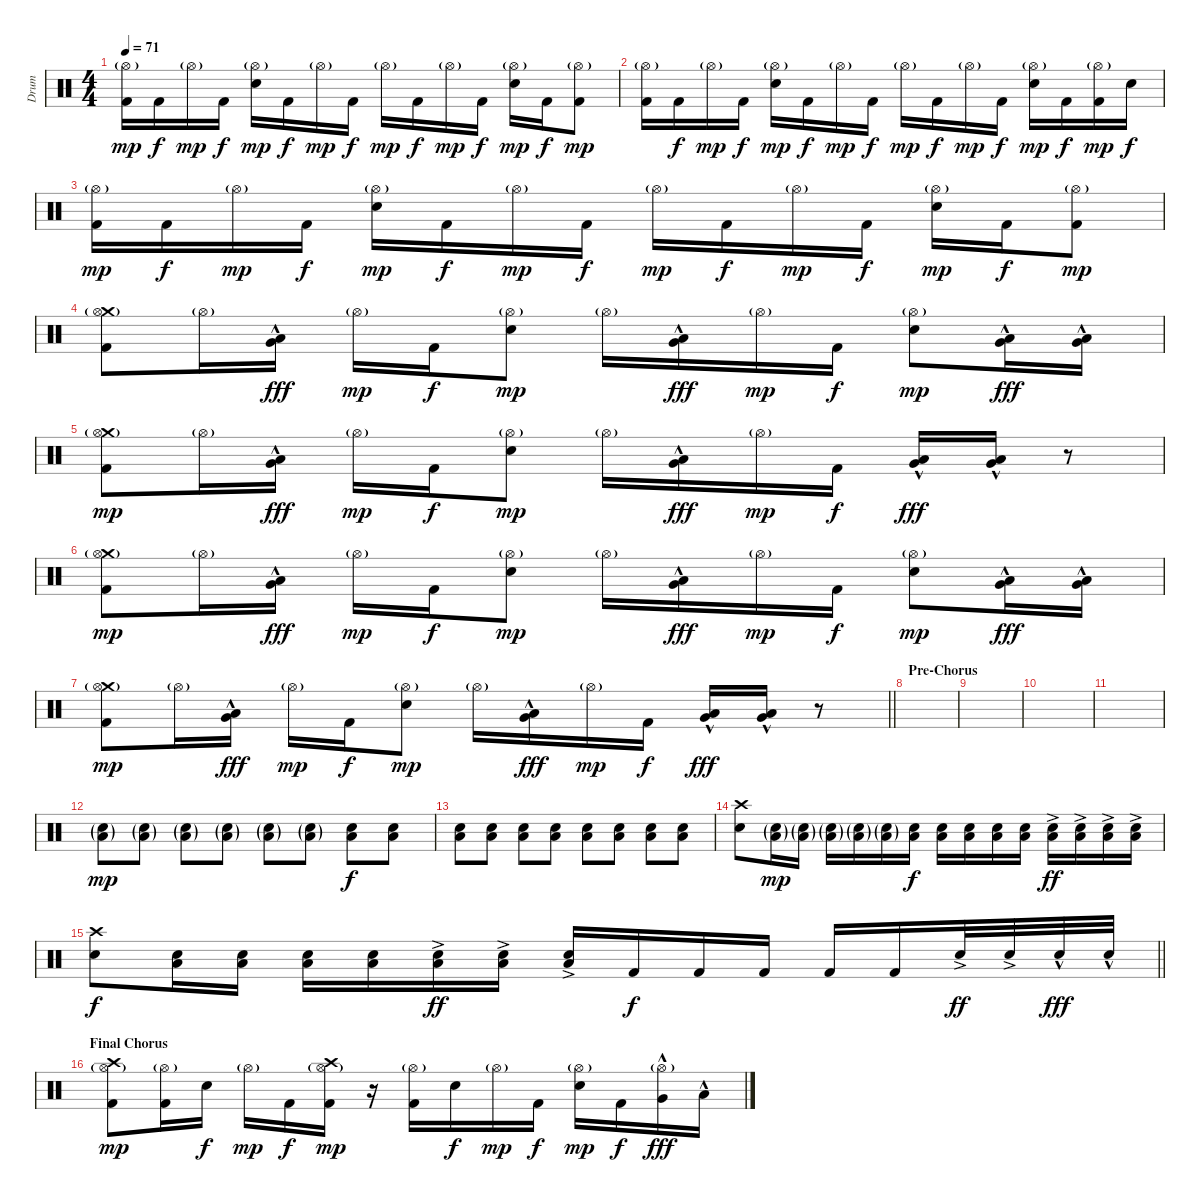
\track ("Drum" "Drum") {instrument percussion}
\staff {score}
\articulation defaults
\ts (4 4)
\tempo 71
\clef neutral
\ks c
("Hi-Hat (open)"{g} "Kick (hit) 2").16{dy mp} "Kick (hit) 2".16{dy f} "Hi-Hat (open)"{g}.16{dy mp} "Kick (hit) 2".16{dy f} ("Hi-Hat (open)"{g} "Electric Snare (hit)").16{dy mp} "Kick (hit) 2".16{dy f} "Hi-Hat (open)"{g}.16{dy mp} "Kick (hit) 2".16{dy f} "Hi-Hat (open)"{g}.16{dy mp} "Kick (hit) 2".16{dy f} "Hi-Hat (open)"{g}.16{dy mp} "Kick (hit) 2".16{dy f} ("Hi-Hat (open)"{g} "Electric Snare (hit)").16{dy mp} "Kick (hit) 2".16{dy f} ("Hi-Hat (open)"{g} "Kick (hit) 2").8{dy mp} |
("Hi-Hat (open)"{g} "Kick (hit) 2").16 "Kick (hit) 2".16{dy f} "Hi-Hat (open)"{g}.16{dy mp} "Kick (hit) 2".16{dy f} ("Hi-Hat (open)"{g} "Electric Snare (hit)").16{dy mp} "Kick (hit) 2".16{dy f} "Hi-Hat (open)"{g}.16{dy mp} "Kick (hit) 2".16{dy f} "Hi-Hat (open)"{g}.16{dy mp} "Kick (hit) 2".16{dy f} "Hi-Hat (open)"{g}.16{dy mp} "Kick (hit) 2".16{dy f} ("Hi-Hat (open)"{g} "Electric Snare (hit)").16{dy mp} "Kick (hit) 2".16{dy f} ("Hi-Hat (open)"{g} "Kick (hit) 2").16{dy mp} "Electric Snare (hit)".16{dy f} |
("Hi-Hat (open)"{g} "Kick (hit) 2").16{dy mp} "Kick (hit) 2".16{dy f} "Hi-Hat (open)"{g}.16{dy mp} "Kick (hit) 2".16{dy f} ("Hi-Hat (open)"{g} "Electric Snare (hit)").16{dy mp} "Kick (hit) 2".16{dy f} "Hi-Hat (open)"{g}.16{dy mp} "Kick (hit) 2".16{dy f} "Hi-Hat (open)"{g}.16{dy mp} "Kick (hit) 2".16{dy f} "Hi-Hat (open)"{g}.16{dy mp} "Kick (hit) 2".16{dy f} ("Hi-Hat (open)"{g} "Electric Snare (hit)").16{dy mp} "Kick (hit) 2".16{dy f} ("Hi-Hat (open)"{g} "Kick (hit) 2").8{dy mp} |
("Crash medium (hit)" "Hi-Hat (open)"{g} "Kick (hit) 2").8 "Hi-Hat (open)"{g}.16 ("Very Low Tom (hit)"{hac} "Low Floor Tom (hit)"{hac}).16{dy fff} "Hi-Hat (open)"{g}.16{dy mp} "Kick (hit) 2".16{dy f} ("Hi-Hat (open)"{g} "Electric Snare (hit)").8{dy mp} "Hi-Hat (open)"{g}.16 ("Very Low Tom (hit)"{hac} "Low Floor Tom (hit)"{hac}).16{dy fff} "Hi-Hat (open)"{g}.16{dy mp} "Kick (hit) 2".16{dy f} ("Hi-Hat (open)"{g} "Electric Snare (hit)").8{dy mp} ("Very Low Tom (hit)"{hac} "Low Floor Tom (hit)"{hac}).16{dy fff} ("Very Low Tom (hit)"{hac} "Low Floor Tom (hit)"{hac}).16 |
("Crash medium (hit)" "Hi-Hat (open)"{g} "Kick (hit) 2").8{dy mp} "Hi-Hat (open)"{g}.16 ("Very Low Tom (hit)"{hac} "Low Floor Tom (hit)"{hac}).16{dy fff} "Hi-Hat (open)"{g}.16{dy mp} "Kick (hit) 2".16{dy f} ("Hi-Hat (open)"{g} "Electric Snare (hit)").8{dy mp} "Hi-Hat (open)"{g}.16 ("Very Low Tom (hit)"{hac} "Low Floor Tom (hit)"{hac}).16{dy fff} "Hi-Hat (open)"{g}.16{dy mp} "Kick (hit) 2".16{dy f} ("Very Low Tom (hit)" "Low Floor Tom (hit)"{hac}).16{dy fff} ("Very Low Tom (hit)" "Low Floor Tom (hit)"{hac}).16 r.8 |
("Crash medium (hit)" "Hi-Hat (open)"{g} "Kick (hit) 2").8{dy mp} "Hi-Hat (open)"{g}.16 ("Very Low Tom (hit)"{hac} "Low Floor Tom (hit)"{hac}).16{dy fff} "Hi-Hat (open)"{g}.16{dy mp} "Kick (hit) 2".16{dy f} ("Hi-Hat (open)"{g} "Electric Snare (hit)").8{dy mp} "Hi-Hat (open)"{g}.16 ("Very Low Tom (hit)"{hac} "Low Floor Tom (hit)"{hac}).16{dy fff} "Hi-Hat (open)"{g}.16{dy mp} "Kick (hit) 2".16{dy f} ("Hi-Hat (open)"{g} "Electric Snare (hit)").8{dy mp} ("Very Low Tom (hit)"{hac} "Low Floor Tom (hit)"{hac}).16{dy fff} ("Very Low Tom (hit)"{hac} "Low Floor Tom (hit)"{hac}).16 |
\barLineRight lightlight
("Crash medium (hit)" "Hi-Hat (open)"{g} "Kick (hit) 2").8{dy mp} "Hi-Hat (open)"{g}.16 ("Very Low Tom (hit)"{hac} "Low Floor Tom (hit)"{hac}).16{dy fff} "Hi-Hat (open)"{g}.16{dy mp} "Kick (hit) 2".16{dy f} ("Hi-Hat (open)"{g} "Electric Snare (hit)").8{dy mp} "Hi-Hat (open)"{g}.16 ("Very Low Tom (hit)"{hac} "Low Floor Tom (hit)"{hac}).16{dy fff} "Hi-Hat (open)"{g}.16{dy mp} "Kick (hit) 2".16{dy f} ("Very Low Tom (hit)" "Low Floor Tom (hit)"{hac}).16{dy fff} ("Very Low Tom (hit)" "Low Floor Tom (hit)"{hac}).16 r.8 |
\section ("" "Pre-Chorus")
|
|
|
|
("Low Floor Tom (hit)"{g} "Electric Snare (hit)"{g}).8{dy mp} ("Low Floor Tom (hit)"{g} "Electric Snare (hit)"{g}).8 ("Low Floor Tom (hit)"{g} "Electric Snare (hit)"{g}).8 ("Low Floor Tom (hit)"{g} "Electric Snare (hit)"{g}).8 ("Low Floor Tom (hit)"{g} "Electric Snare (hit)"{g}).8 ("Low Floor Tom (hit)"{g} "Electric Snare (hit)"{g}).8 ("Low Floor Tom (hit)" "Electric Snare (hit)").8{dy f} ("Low Floor Tom (hit)" "Electric Snare (hit)").8 |
("Low Floor Tom (hit)" "Electric Snare (hit)").8 ("Low Floor Tom (hit)" "Electric Snare (hit)").8 ("Low Floor Tom (hit)" "Electric Snare (hit)").8 ("Low Floor Tom (hit)" "Electric Snare (hit)").8 ("Low Floor Tom (hit)" "Electric Snare (hit)").8 ("Low Floor Tom (hit)" "Electric Snare (hit)").8 ("Low Floor Tom (hit)" "Electric Snare (hit)").8 ("Low Floor Tom (hit)" "Electric Snare (hit)").8 |
("Crash high (hit)" "Electric Snare (hit)").8 ("Low Floor Tom (hit)"{g} "Electric Snare (hit)"{g}).16{dy mp} ("Low Floor Tom (hit)"{g} "Electric Snare (hit)"{g}).16 ("Low Floor Tom (hit)"{g} "Electric Snare (hit)"{g}).16 ("Low Floor Tom (hit)"{g} "Electric Snare (hit)"{g}).16 ("Low Floor Tom (hit)"{g} "Electric Snare (hit)"{g}).16 ("Low Floor Tom (hit)" "Electric Snare (hit)").16{dy f} ("Low Floor Tom (hit)" "Electric Snare (hit)").16 ("Low Floor Tom (hit)" "Electric Snare (hit)").16 ("Low Floor Tom (hit)" "Electric Snare (hit)").16 ("Low Floor Tom (hit)" "Electric Snare (hit)").16 ("Low Floor Tom (hit)"{ac} "Electric Snare (hit)"{ac}).16{dy ff} ("Low Floor Tom (hit)"{ac} "Electric Snare (hit)"{ac}).16 ("Low Floor Tom (hit)"{ac} "Electric Snare (hit)"{ac}).16 ("Low Floor Tom (hit)"{ac} "Electric Snare (hit)"{ac}).16 |
\barLineRight lightlight
("Crash high (hit)" "Electric Snare (hit)").8{dy f} ("Low Floor Tom (hit)" "Electric Snare (hit)").16 ("Low Floor Tom (hit)" "Electric Snare (hit)").16 ("Low Floor Tom (hit)" "Electric Snare (hit)").16 ("Low Floor Tom (hit)" "Electric Snare (hit)").16 ("Low Floor Tom (hit)"{ac} "Electric Snare (hit)"{ac}).16{dy ff} ("Low Floor Tom (hit)"{ac} "Electric Snare (hit)"{ac}).16 ("Low Floor Tom (hit)"{ac} "Electric Snare (hit)"{ac}).16 "Kick (hit) 2".16{dy f} "Kick (hit) 2".16 "Kick (hit) 2".16 "Kick (hit) 2".16 "Kick (hit) 2".16 "Electric Snare (hit)"{ac}.32{dy ff} "Electric Snare (hit)"{ac}.32 "Electric Snare (hit)"{hac}.32{dy fff} "Electric Snare (hit)"{hac}.32 |
\section ("" "Final Chorus")
("Crash high (hit)" "Hi-Hat (open)"{g} "Kick (hit) 2").8{dy mp} ("Hi-Hat (open)"{g} "Kick (hit) 2").16 "Electric Snare (hit)".16{dy f} "Hi-Hat (open)"{g}.16{dy mp} "Kick (hit) 2".16{dy f} ("Crash high (hit)" "Hi-Hat (open)"{g} "Kick (hit) 2").16{dy mp} r.16 ("Hi-Hat (open)"{g} "Kick (hit) 2").16 "Electric Snare (hit)".16{dy f} "Hi-Hat (open)"{g}.16{dy mp} "Kick (hit) 2".16{dy f} ("Hi-Hat (open)"{g} "Electric Snare (hit)").16{dy mp} "Kick (hit) 2".16{dy f} ("Hi-Hat (open)"{g} "Very Low Tom (hit)"{hac}).16{dy fff} "Low Floor Tom (hit)"{hac}.16
